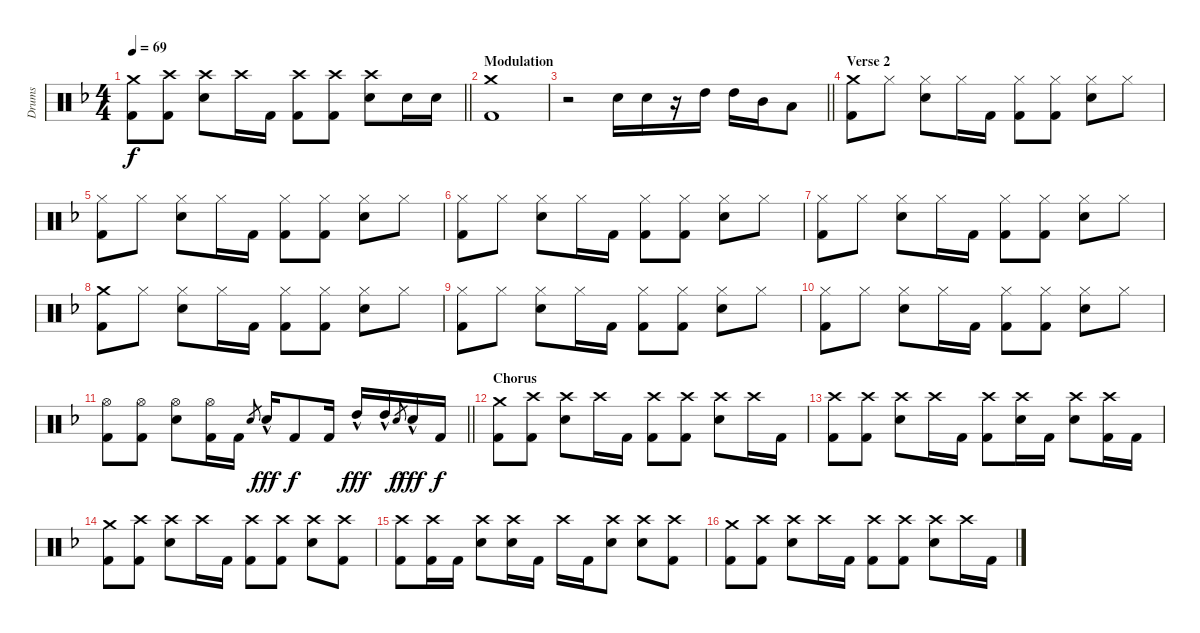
\track ("Drums" "Drums") {instrument percussion}
\staff {score}
\articulation defaults
\ts (4 4)
\tempo 69
\clef neutral
\barLineRight lightlight
\ks dminor
("Crash medium (hit)" "Kick (hit) 2").8{dy f} ("Crash high (hit)" "Kick (hit) 2").8 ("Crash high (hit)" "Snare (hit) 2").8 "Crash high (hit)".16 "Kick (hit) 2".16 ("Crash high (hit)" "Kick (hit) 2").8 ("Crash high (hit)" "Kick (hit) 2").8 ("Crash high (hit)" "Snare (hit) 2").8 "Snare (hit) 2".16 "Snare (hit) 2".16 |
\section ("" "Modulation")
("Crash medium (hit)" "Kick (hit) 2").1 |
\barLineRight lightlight
r.2 "Snare (hit) 2".16 "Snare (hit) 2".16 r.16 "High Tom (hit)".16 "High Tom (hit)".16 "Mid Tom (hit)".16 "Low Floor Tom (hit)".8 |
\section ("" "Verse 2")
("Crash medium (hit)" "Kick (hit) 2").8 "Hi-Hat (closed)".8 ("Hi-Hat (closed)" "Snare (hit) 2").8 "Hi-Hat (closed)".16 "Kick (hit) 2".16 ("Hi-Hat (closed)" "Kick (hit) 2").8 ("Hi-Hat (closed)" "Kick (hit) 2").8 ("Hi-Hat (closed)" "Snare (hit) 2").8 "Hi-Hat (closed)".8 |
("Hi-Hat (closed)" "Kick (hit) 2").8 "Hi-Hat (closed)".8 ("Hi-Hat (closed)" "Snare (hit) 2").8 "Hi-Hat (closed)".16 "Kick (hit) 2".16 ("Hi-Hat (closed)" "Kick (hit) 2").8 ("Hi-Hat (closed)" "Kick (hit) 2").8 ("Hi-Hat (closed)" "Snare (hit) 2").8 "Hi-Hat (closed)".8 |
("Hi-Hat (closed)" "Kick (hit) 2").8 "Hi-Hat (closed)".8 ("Hi-Hat (closed)" "Snare (hit) 2").8 "Hi-Hat (closed)".16 "Kick (hit) 2".16 ("Hi-Hat (closed)" "Kick (hit) 2").8 ("Hi-Hat (closed)" "Kick (hit) 2").8 ("Hi-Hat (closed)" "Snare (hit) 2").8 "Hi-Hat (closed)".8 |
("Hi-Hat (closed)" "Kick (hit) 2").8 "Hi-Hat (closed)".8 ("Hi-Hat (closed)" "Snare (hit) 2").8 "Hi-Hat (closed)".16 "Kick (hit) 2".16 ("Hi-Hat (closed)" "Kick (hit) 2").8 ("Hi-Hat (closed)" "Kick (hit) 2").8 ("Hi-Hat (closed)" "Snare (hit) 2").8 "Hi-Hat (closed)".8 |
("Crash medium (hit)" "Kick (hit) 2").8 "Hi-Hat (closed)".8 ("Hi-Hat (closed)" "Snare (hit) 2").8 "Hi-Hat (closed)".16 "Kick (hit) 2".16 ("Hi-Hat (closed)" "Kick (hit) 2").8 ("Hi-Hat (closed)" "Kick (hit) 2").8 ("Hi-Hat (closed)" "Snare (hit) 2").8 "Hi-Hat (closed)".8 |
("Hi-Hat (closed)" "Kick (hit) 2").8 "Hi-Hat (closed)".8 ("Hi-Hat (closed)" "Snare (hit) 2").8 "Hi-Hat (closed)".16 "Kick (hit) 2".16 ("Hi-Hat (closed)" "Kick (hit) 2").8 ("Hi-Hat (closed)" "Kick (hit) 2").8 ("Hi-Hat (closed)" "Snare (hit) 2").8 "Hi-Hat (closed)".8 |
("Hi-Hat (closed)" "Kick (hit) 2").8 "Hi-Hat (closed)".8 ("Hi-Hat (closed)" "Snare (hit) 2").8 "Hi-Hat (closed)".16 "Kick (hit) 2".16 ("Hi-Hat (closed)" "Kick (hit) 2").8 ("Hi-Hat (closed)" "Kick (hit) 2").8 ("Hi-Hat (closed)" "Snare (hit) 2").8 "Hi-Hat (closed)".8 |
\barLineRight lightlight
("Hi-Hat (open)" "Kick (hit) 2").8 ("Hi-Hat (open)" "Kick (hit) 2").8 ("Hi-Hat (open)" "Snare (hit) 2").8 ("Hi-Hat (open)" "Kick (hit) 2").16 "Kick (hit) 2".16 "Snare (hit) 2".8{gr} "Snare (hit) 2"{hac}.16{dy fff} "Kick (hit) 2".8{dy f} "Kick (hit) 2".16 "High Tom (hit)"{hac}.16{dy fff} "High Tom (hit)"{hac}.16 "Snare (hit) 2".8{gr dy f} "Snare (hit) 2"{hac}.16{dy fff} "Kick (hit) 2".16{dy f} |
\section ("" "Chorus")
("Crash medium (hit)" "Kick (hit) 2").8 ("Crash high (hit)" "Kick (hit) 2").8 ("Crash high (hit)" "Snare (hit) 2").8 "Crash high (hit)".16 "Kick (hit) 2".16 ("Crash high (hit)" "Kick (hit) 2").8 ("Crash high (hit)" "Kick (hit) 2").8 ("Crash high (hit)" "Snare (hit) 2").8 "Crash high (hit)".16 "Kick (hit) 2".16 |
("Crash high (hit)" "Kick (hit) 2").8 ("Crash high (hit)" "Kick (hit) 2").8 ("Crash high (hit)" "Snare (hit) 2").8 "Crash high (hit)".16 "Kick (hit) 2".16 ("Crash high (hit)" "Kick (hit) 2").8 ("Crash high (hit)" "Snare (hit) 2").16 "Kick (hit) 2".16 ("Crash high (hit)" "Snare (hit) 2").8 ("Crash high (hit)" "Kick (hit) 2").16 "Kick (hit) 2".16 |
("Crash medium (hit)" "Kick (hit) 2").8 ("Crash high (hit)" "Kick (hit) 2").8 ("Crash high (hit)" "Snare (hit) 2").8 "Crash high (hit)".16 "Kick (hit) 2".16 ("Crash high (hit)" "Kick (hit) 2").8 ("Crash high (hit)" "Kick (hit) 2").8 ("Crash high (hit)" "Snare (hit) 2").8 ("Crash high (hit)" "Kick (hit) 2").8 |
("Crash high (hit)" "Kick (hit) 2").8 ("Crash high (hit)" "Kick (hit) 2").16 "Kick (hit) 2".16 ("Crash high (hit)" "Snare (hit) 2").8 ("Crash high (hit)" "Snare (hit) 2").16 "Kick (hit) 2".16 "Crash high (hit)".16 "Kick (hit) 2".16 ("Crash high (hit)" "Snare (hit) 2").8 ("Crash high (hit)" "Snare (hit) 2").8 ("Crash high (hit)" "Kick (hit) 2").8 |
("Crash medium (hit)" "Kick (hit) 2").8 ("Crash high (hit)" "Kick (hit) 2").8 ("Crash high (hit)" "Snare (hit) 2").8 "Crash high (hit)".16 "Kick (hit) 2".16 ("Crash high (hit)" "Kick (hit) 2").8 ("Crash high (hit)" "Kick (hit) 2").8 ("Crash high (hit)" "Snare (hit) 2").8 "Crash high (hit)".16 "Kick (hit) 2".16
